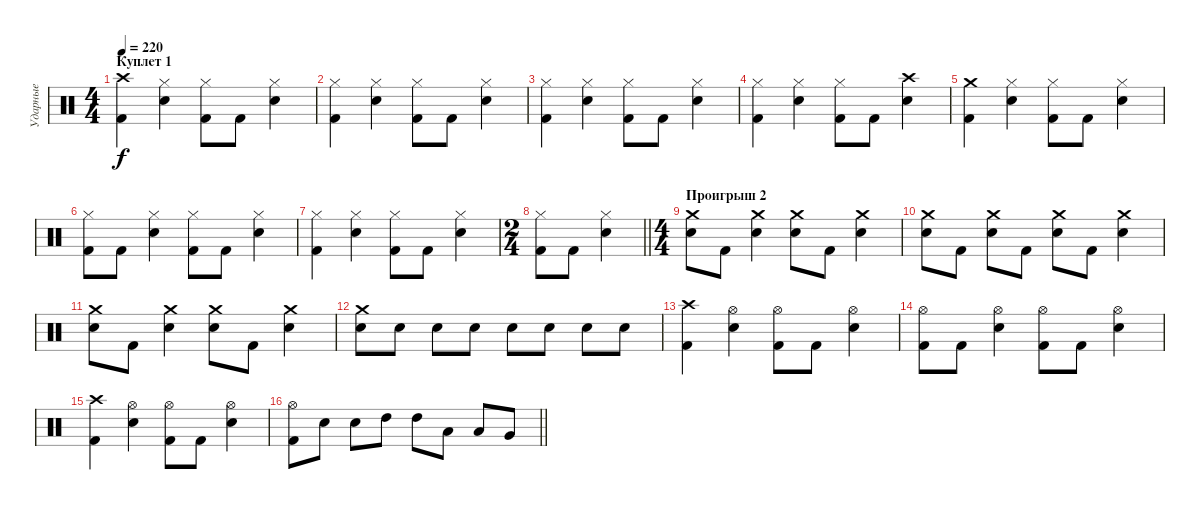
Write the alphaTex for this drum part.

\track ("Ударные" "Ударные") {instrument percussion}
\staff {score}
\articulation defaults
\ts (4 4)
\section ("" "Куплет 1")
\tempo 220
\clef neutral
\ks c
("Crash high (hit)" "Kick (hit) 2").4{dy f} ("Hi-Hat (closed)" "Snare (hit) 2").4 ("Hi-Hat (closed)" "Kick (hit) 2").8 "Kick (hit) 2".8 ("Hi-Hat (closed)" "Snare (hit) 2").4 |
("Hi-Hat (closed)" "Kick (hit) 2").4 ("Hi-Hat (closed)" "Snare (hit) 2").4 ("Hi-Hat (closed)" "Kick (hit) 2").8 "Kick (hit) 2".8 ("Hi-Hat (closed)" "Snare (hit) 2").4 |
("Hi-Hat (closed)" "Kick (hit) 2").4 ("Hi-Hat (closed)" "Snare (hit) 2").4 ("Hi-Hat (closed)" "Kick (hit) 2").8 "Kick (hit) 2".8 ("Hi-Hat (closed)" "Snare (hit) 2").4 |
("Hi-Hat (closed)" "Kick (hit) 2").4 ("Hi-Hat (closed)" "Snare (hit) 2").4 ("Hi-Hat (closed)" "Kick (hit) 2").8 "Kick (hit) 2".8 ("Crash high (hit)" "Snare (hit) 2").4 |
("Crash medium (hit)" "Kick (hit) 2").4 ("Hi-Hat (closed)" "Snare (hit) 2").4 ("Hi-Hat (closed)" "Kick (hit) 2").8 "Kick (hit) 2".8 ("Hi-Hat (closed)" "Snare (hit) 2").4 |
("Hi-Hat (closed)" "Kick (hit) 2").8 "Kick (hit) 2".8 ("Hi-Hat (closed)" "Snare (hit) 2").4 ("Hi-Hat (closed)" "Kick (hit) 2").8 "Kick (hit) 2".8 ("Hi-Hat (closed)" "Snare (hit) 2").4 |
("Hi-Hat (closed)" "Kick (hit) 2").4 ("Hi-Hat (closed)" "Snare (hit) 2").4 ("Hi-Hat (closed)" "Kick (hit) 2").8 "Kick (hit) 2".8 ("Hi-Hat (closed)" "Snare (hit) 2").4 |
\ts (2 4)
\barLineRight lightlight
("Hi-Hat (closed)" "Kick (hit) 2").8 "Kick (hit) 2".8 ("Hi-Hat (closed)" "Snare (hit) 2").4 |
\ts (4 4)
\section ("" "Проигрыш 2")
("Crash medium (hit)" "Snare (hit) 2").8 "Kick (hit) 2".8 ("Crash medium (hit)" "Snare (hit) 2").4 ("Crash medium (hit)" "Snare (hit) 2").8 "Kick (hit) 2".8 ("Crash medium (hit)" "Snare (hit) 2").4 |
("Crash medium (hit)" "Snare (hit) 2").8 "Kick (hit) 2".8 ("Crash medium (hit)" "Snare (hit) 2").8 "Kick (hit) 2".8 ("Crash medium (hit)" "Snare (hit) 2").8 "Kick (hit) 2".8 ("Crash medium (hit)" "Snare (hit) 2").4 |
("Crash medium (hit)" "Snare (hit) 2").8 "Kick (hit) 2".8 ("Crash medium (hit)" "Snare (hit) 2").4 ("Crash medium (hit)" "Snare (hit) 2").8 "Kick (hit) 2".8 ("Crash medium (hit)" "Snare (hit) 2").4 |
("Crash medium (hit)" "Snare (hit) 2").8 "Snare (hit) 2".8 "Snare (hit) 2".8 "Snare (hit) 2".8 "Snare (hit) 2".8 "Snare (hit) 2".8 "Snare (hit) 2".8 "Snare (hit) 2".8 |
("Crash high (hit)" "Kick (hit) 2").4 ("Hi-Hat (open)" "Snare (hit) 2").4 ("Hi-Hat (open)" "Kick (hit) 2").8 "Kick (hit) 2".8 ("Hi-Hat (open)" "Snare (hit) 2").4 |
("Hi-Hat (open)" "Kick (hit) 2").8 "Kick (hit) 2".8 ("Hi-Hat (open)" "Snare (hit) 2").4 ("Hi-Hat (open)" "Kick (hit) 2").8 "Kick (hit) 2".8 ("Hi-Hat (open)" "Snare (hit) 2").4 |
("Crash high (hit)" "Kick (hit) 2").4 ("Hi-Hat (open)" "Snare (hit) 2").4 ("Hi-Hat (open)" "Kick (hit) 2").8 "Kick (hit) 2".8 ("Hi-Hat (open)" "Snare (hit) 2").4 |
\barLineRight lightlight
("Hi-Hat (open)" "Kick (hit) 2").8 "Snare (hit) 2".8 "Snare (hit) 2".8 "High Tom (hit)".8 "High Tom (hit)".8 "Low Tom (hit)".8 "Low Tom (hit)".8 "Very Low Tom (hit)".8
